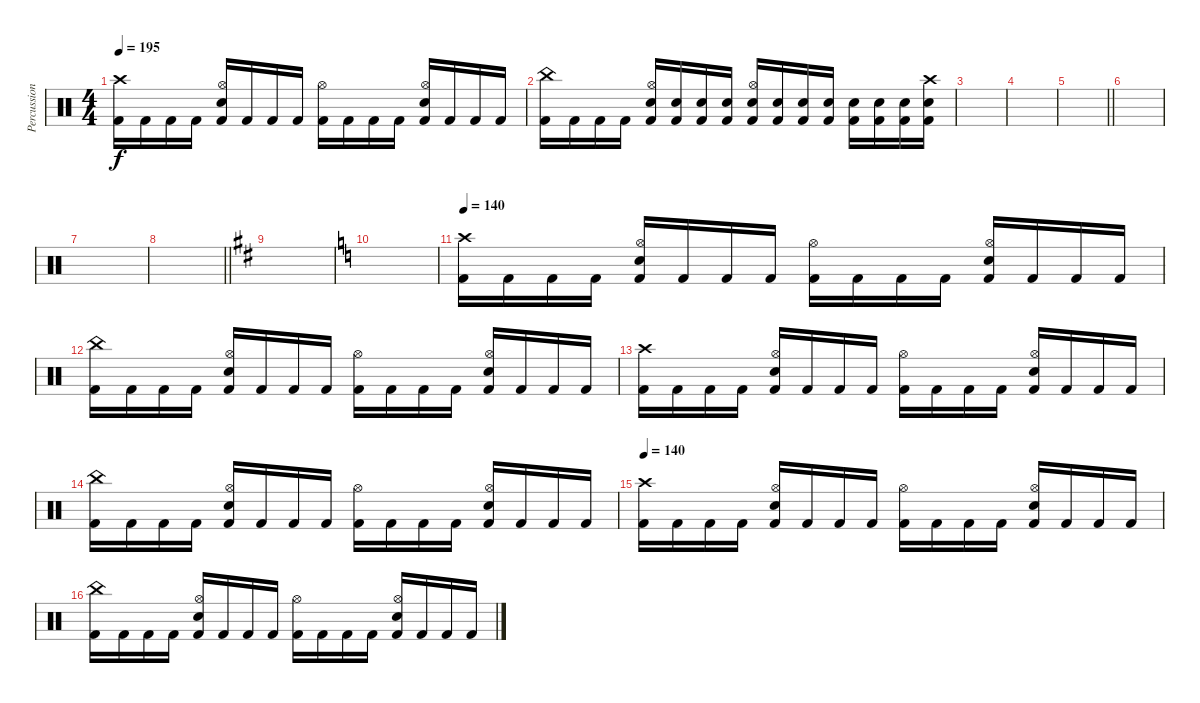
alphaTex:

\track ("Percussion" "Percussion") {instrument percussion}
\staff {score}
\articulation defaults
\ts (4 4)
\tempo 195
\clef neutral
\ks c
("Crash high (hit)" "Kick (hit) 2").16{dy f} "Kick (hit) 2".16 "Kick (hit) 2".16 "Kick (hit) 2".16 ("Hi-Hat (open)" "Electric Snare (hit)" "Kick (hit) 2").16 "Kick (hit) 2".16 "Kick (hit) 2".16 "Kick (hit) 2".16 ("Hi-Hat (open)" "Kick (hit) 2").16 "Kick (hit) 2".16 "Kick (hit) 2".16 "Kick (hit) 2".16 ("Hi-Hat (open)" "Electric Snare (hit)" "Kick (hit) 2").16 "Kick (hit) 2".16 "Kick (hit) 2".16 "Kick (hit) 2".16 |
("China (hit)" "Kick (hit) 2").16 "Kick (hit) 2".16 "Kick (hit) 2".16 "Kick (hit) 2".16 ("Hi-Hat (open)" "Electric Snare (hit)" "Kick (hit) 2").16 ("Electric Snare (hit)" "Kick (hit) 2").16 ("Electric Snare (hit)" "Kick (hit) 2").16 ("Electric Snare (hit)" "Kick (hit) 2").16 ("Hi-Hat (open)" "Electric Snare (hit)" "Kick (hit) 2").16 ("Electric Snare (hit)" "Kick (hit) 2").16 ("Electric Snare (hit)" "Kick (hit) 2").16 ("Electric Snare (hit)" "Kick (hit) 2").16 ("Electric Snare (hit)" "Kick (hit) 2").16 ("Electric Snare (hit)" "Kick (hit) 2").16 ("Electric Snare (hit)" "Kick (hit) 2").16 ("Crash high (hit)" "Electric Snare (hit)" "Kick (hit) 2").16 |
|
|
\barLineRight lightlight
|
|
|
\barLineRight lightlight
|
\ks d
|
\ks c
|
\tempo 140
("Crash high (hit)" "Kick (hit) 2").16 "Kick (hit) 2".16 "Kick (hit) 2".16 "Kick (hit) 2".16 ("Hi-Hat (open)" "Electric Snare (hit)" "Kick (hit) 2").16 "Kick (hit) 2".16 "Kick (hit) 2".16 "Kick (hit) 2".16 ("Hi-Hat (open)" "Kick (hit) 2").16 "Kick (hit) 2".16 "Kick (hit) 2".16 "Kick (hit) 2".16 ("Hi-Hat (open)" "Electric Snare (hit)" "Kick (hit) 2").16 "Kick (hit) 2".16 "Kick (hit) 2".16 "Kick (hit) 2".16 |
("China (hit)" "Kick (hit) 2").16 "Kick (hit) 2".16 "Kick (hit) 2".16 "Kick (hit) 2".16 ("Hi-Hat (open)" "Electric Snare (hit)" "Kick (hit) 2").16 "Kick (hit) 2".16 "Kick (hit) 2".16 "Kick (hit) 2".16 ("Hi-Hat (open)" "Kick (hit) 2").16 "Kick (hit) 2".16 "Kick (hit) 2".16 "Kick (hit) 2".16 ("Hi-Hat (open)" "Electric Snare (hit)" "Kick (hit) 2").16 "Kick (hit) 2".16 "Kick (hit) 2".16 "Kick (hit) 2".16 |
("Crash high (hit)" "Kick (hit) 2").16 "Kick (hit) 2".16 "Kick (hit) 2".16 "Kick (hit) 2".16 ("Hi-Hat (open)" "Electric Snare (hit)" "Kick (hit) 2").16 "Kick (hit) 2".16 "Kick (hit) 2".16 "Kick (hit) 2".16 ("Hi-Hat (open)" "Kick (hit) 2").16 "Kick (hit) 2".16 "Kick (hit) 2".16 "Kick (hit) 2".16 ("Hi-Hat (open)" "Electric Snare (hit)" "Kick (hit) 2").16 "Kick (hit) 2".16 "Kick (hit) 2".16 "Kick (hit) 2".16 |
("China (hit)" "Kick (hit) 2").16 "Kick (hit) 2".16 "Kick (hit) 2".16 "Kick (hit) 2".16 ("Hi-Hat (open)" "Electric Snare (hit)" "Kick (hit) 2").16 "Kick (hit) 2".16 "Kick (hit) 2".16 "Kick (hit) 2".16 ("Hi-Hat (open)" "Kick (hit) 2").16 "Kick (hit) 2".16 "Kick (hit) 2".16 "Kick (hit) 2".16 ("Hi-Hat (open)" "Electric Snare (hit)" "Kick (hit) 2").16 "Kick (hit) 2".16 "Kick (hit) 2".16 "Kick (hit) 2".16 |
\tempo 140
("Crash high (hit)" "Kick (hit) 2").16 "Kick (hit) 2".16 "Kick (hit) 2".16 "Kick (hit) 2".16 ("Hi-Hat (open)" "Electric Snare (hit)" "Kick (hit) 2").16 "Kick (hit) 2".16 "Kick (hit) 2".16 "Kick (hit) 2".16 ("Hi-Hat (open)" "Kick (hit) 2").16 "Kick (hit) 2".16 "Kick (hit) 2".16 "Kick (hit) 2".16 ("Hi-Hat (open)" "Electric Snare (hit)" "Kick (hit) 2").16 "Kick (hit) 2".16 "Kick (hit) 2".16 "Kick (hit) 2".16 |
("China (hit)" "Kick (hit) 2").16 "Kick (hit) 2".16 "Kick (hit) 2".16 "Kick (hit) 2".16 ("Hi-Hat (open)" "Electric Snare (hit)" "Kick (hit) 2").16 "Kick (hit) 2".16 "Kick (hit) 2".16 "Kick (hit) 2".16 ("Hi-Hat (open)" "Kick (hit) 2").16 "Kick (hit) 2".16 "Kick (hit) 2".16 "Kick (hit) 2".16 ("Hi-Hat (open)" "Electric Snare (hit)" "Kick (hit) 2").16 "Kick (hit) 2".16 "Kick (hit) 2".16 "Kick (hit) 2".16
